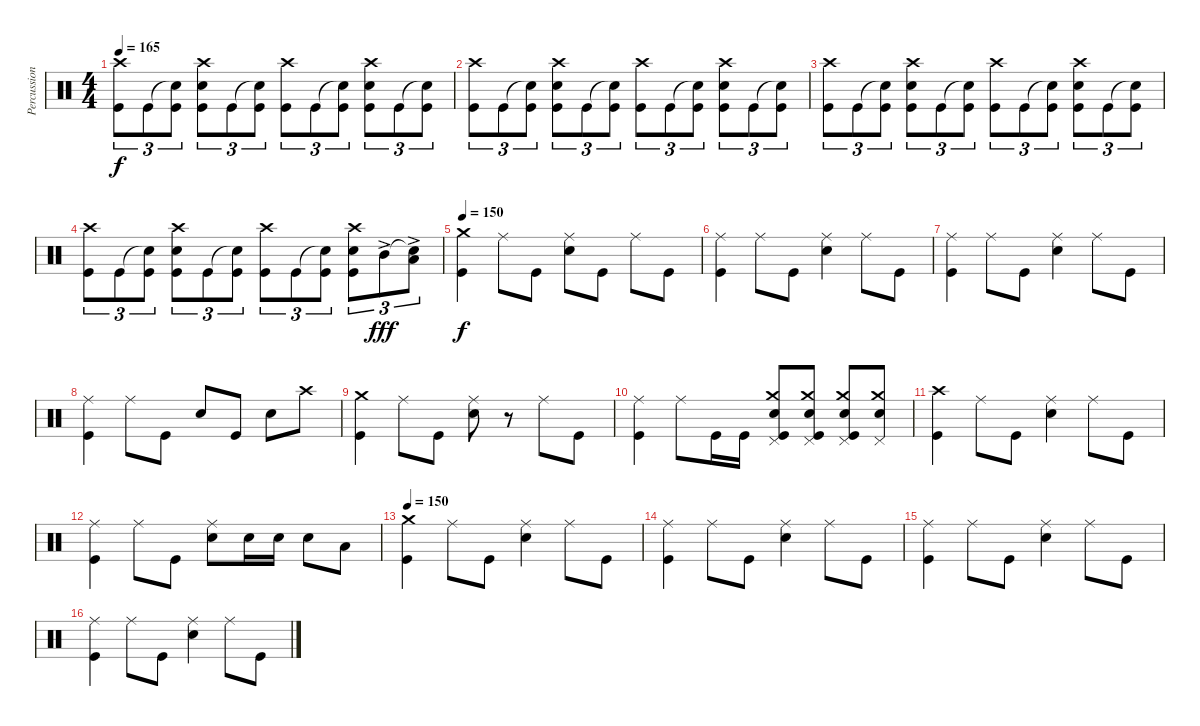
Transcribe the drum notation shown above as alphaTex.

\track ("Percussion" "Percussion") {instrument percussion}
\staff {score}
\articulation defaults
\ts (4 4)
\tempo 165
\clef neutral
\ks c
("Crash high (hit)" "Kick (hit)").8{tu (3 2) dy f} "Kick (hit)".8{tu (3 2)} ("Snare (hit)"{t} "Kick (hit)").8{tu (3 2)} ("Crash high (hit)" "Snare (hit) 2" "Kick (hit)").8{tu (3 2)} "Kick (hit)".8{tu (3 2)} ("Snare (hit)"{t} "Kick (hit)").8{tu (3 2)} ("Crash high (hit)" "Kick (hit)").8{tu (3 2)} "Kick (hit)".8{tu (3 2)} ("Snare (hit)"{t} "Kick (hit)").8{tu (3 2)} ("Crash high (hit)" "Snare (hit) 2" "Kick (hit)").8{tu (3 2)} "Kick (hit)".8{tu (3 2)} ("Snare (hit)"{t} "Kick (hit)").8{tu (3 2)} |
("Crash high (hit)" "Kick (hit)").8{tu (3 2)} "Kick (hit)".8{tu (3 2)} ("Snare (hit)"{t} "Kick (hit)").8{tu (3 2)} ("Crash high (hit)" "Snare (hit) 2" "Kick (hit)").8{tu (3 2)} "Kick (hit)".8{tu (3 2)} ("Snare (hit)"{t} "Kick (hit)").8{tu (3 2)} ("Crash high (hit)" "Kick (hit)").8{tu (3 2)} "Kick (hit)".8{tu (3 2)} ("Snare (hit)"{t} "Kick (hit)").8{tu (3 2)} ("Crash high (hit)" "Snare (hit) 2" "Kick (hit)").8{tu (3 2)} "Kick (hit)".8{tu (3 2)} ("Snare (hit)"{t} "Kick (hit)").8{tu (3 2)} |
("Crash high (hit)" "Kick (hit)").8{tu (3 2)} "Kick (hit)".8{tu (3 2)} ("Snare (hit)"{t} "Kick (hit)").8{tu (3 2)} ("Crash high (hit)" "Snare (hit) 2" "Kick (hit)").8{tu (3 2)} "Kick (hit)".8{tu (3 2)} ("Snare (hit)"{t} "Kick (hit)").8{tu (3 2)} ("Crash high (hit)" "Kick (hit)").8{tu (3 2)} "Kick (hit)".8{tu (3 2)} ("Snare (hit)"{t} "Kick (hit)").8{tu (3 2)} ("Crash high (hit)" "Snare (hit) 2" "Kick (hit)").8{tu (3 2)} "Kick (hit)".8{tu (3 2)} ("Snare (hit)"{t} "Kick (hit)").8{tu (3 2)} |
("Crash high (hit)" "Kick (hit)").8{tu (3 2)} "Kick (hit)".8{tu (3 2)} ("Snare (hit)"{t} "Kick (hit)").8{tu (3 2)} ("Crash high (hit)" "Snare (hit) 2" "Kick (hit)").8{tu (3 2)} "Kick (hit)".8{tu (3 2)} ("Snare (hit)"{t} "Kick (hit)").8{tu (3 2)} ("Crash high (hit)" "Kick (hit)").8{tu (3 2)} "Kick (hit)".8{tu (3 2)} ("Snare (hit)"{t} "Kick (hit)").8{tu (3 2)} ("Crash high (hit)" "Snare (hit) 2" "Kick (hit)").8{tu (3 2)} "Mid Tom (hit)"{ac}.8{tu (3 2) dy fff} ("Snare (hit)"{t} "Low Floor Tom (hit)"{ac}).8{tu (3 2)} |
\tempo 150
("Crash medium (hit)" "Kick (hit)").4{dy f} "Ride (middle)".8 "Kick (hit)".8 ("Ride (middle)" "Snare (hit) 2").8 "Kick (hit)".8 "Ride (middle)".8 "Kick (hit)".8 |
("Ride (middle)" "Kick (hit)").4 "Ride (middle)".8 "Kick (hit)".8 ("Ride (middle)" "Snare (hit) 2").4 "Ride (middle)".8 "Kick (hit)".8 |
("Ride (middle)" "Kick (hit)").4 "Ride (middle)".8 "Kick (hit)".8 ("Ride (middle)" "Snare (hit) 2").4 "Ride (middle)".8 "Kick (hit)".8 |
("Ride (middle)" "Kick (hit)").4 "Ride (middle)".8 "Kick (hit)".8 "Snare (hit) 2".8 "Kick (hit)".8 "Snare (hit) 2".8 "Crash high (hit)".8 |
("Crash medium (hit)" "Kick (hit)").4 "Ride (middle)".8 "Kick (hit)".8 ("Ride (middle)" "Snare (hit) 2").8 r.8 "Ride (middle)".8 "Kick (hit)".8 |
("Ride (middle)" "Kick (hit)").4 "Ride (middle)".8 "Kick (hit)".16 "Kick (hit)".16 ("Crash medium (hit)" "Pedal Hi-Hat (hit)" "Snare (hit) 2" "Kick (hit)").8 ("Crash medium (hit)" "Pedal Hi-Hat (hit)" "Snare (hit) 2" "Kick (hit)").8 ("Crash medium (hit)" "Pedal Hi-Hat (hit)" "Snare (hit) 2" "Kick (hit)").8 ("Crash medium (hit)" "Pedal Hi-Hat (hit)" "Snare (hit) 2").8 |
("Crash high (hit)" "Kick (hit)").4 "Ride (middle)".8 "Kick (hit)".8 ("Ride (middle)" "Snare (hit) 2").4 "Ride (middle)".8 "Kick (hit)".8 |
("Ride (middle)" "Kick (hit)").4 "Ride (middle)".8 "Kick (hit)".8 ("Ride (middle)" "Snare (hit) 2").8 "Snare (hit) 2".16 "Snare (hit) 2".16 "Snare (hit) 2".8 "Low Tom (hit)".8 |
\tempo 150
("Crash medium (hit)" "Kick (hit)").4 "Ride (middle)".8 "Kick (hit)".8 ("Ride (middle)" "Snare (hit) 2").4 "Ride (middle)".8 "Kick (hit)".8 |
("Ride (middle)" "Kick (hit)").4 "Ride (middle)".8 "Kick (hit)".8 ("Ride (middle)" "Snare (hit) 2").4 "Ride (middle)".8 "Kick (hit)".8 |
("Ride (middle)" "Kick (hit)").4 "Ride (middle)".8 "Kick (hit)".8 ("Ride (middle)" "Snare (hit) 2").4 "Ride (middle)".8 "Kick (hit)".8 |
("Ride (middle)" "Kick (hit)").4 "Ride (middle)".8 "Kick (hit)".8 ("Ride (middle)" "Snare (hit) 2").4 "Ride (middle)".8 "Kick (hit)".8
